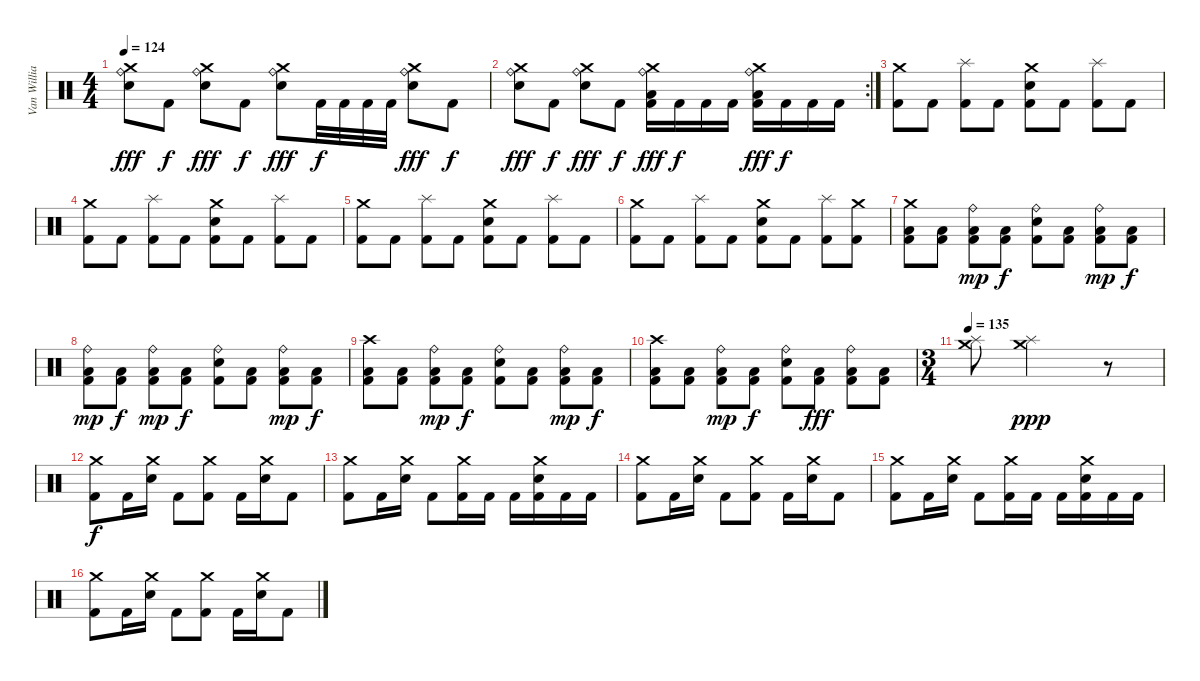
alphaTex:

\track ("Van Williams" "Van Willia") {instrument percussion}
\staff {score}
\articulation defaults
\ts (4 4)
\tempo 124
\clef neutral
\ks c
("Crash medium (hit)" "Ride (bell)" "Electric Snare (hit)").8{dy fff} "Kick (hit) 2".8{dy f} ("Crash medium (hit)" "Ride (bell)" "Electric Snare (hit)").8{dy fff} "Kick (hit) 2".8{dy f} ("Crash medium (hit)" "Ride (bell)" "Electric Snare (hit)").8{dy fff} "Kick (hit) 2".32{dy f} "Kick (hit) 2".32 "Kick (hit) 2".32 "Kick (hit) 2".32 ("Crash medium (hit)" "Ride (bell)" "Electric Snare (hit)").8{dy fff} "Kick (hit) 2".8{dy f} |
\rc 2
("Crash medium (hit)" "Ride (bell)" "Electric Snare (hit)").8{dy fff} "Kick (hit) 2".8{dy f} ("Crash medium (hit)" "Ride (bell)" "Electric Snare (hit)").8{dy fff} "Kick (hit) 2".8{dy f} ("Crash medium (hit)" "Ride (bell)" "Low Floor Tom (hit)" "Kick (hit) 2").16{dy fff} "Kick (hit) 2".16{dy f} "Kick (hit) 2".16 "Kick (hit) 2".16 ("Crash medium (hit)" "Ride (bell)" "Low Floor Tom (hit)" "Kick (hit) 2").16{dy fff} "Kick (hit) 2".16{dy f} "Kick (hit) 2".16 "Kick (hit) 2".16 |
("Crash medium (hit)" "Kick (hit) 2").8 "Kick (hit) 2".8 ("Splash (hit)" "Kick (hit) 2").8 "Kick (hit) 2".8 ("Crash medium (hit)" "Electric Snare (hit)" "Kick (hit) 2").8 "Kick (hit) 2".8 ("Splash (hit)" "Kick (hit) 2").8 "Kick (hit) 2".8 |
("Crash medium (hit)" "Kick (hit) 2").8 "Kick (hit) 2".8 ("Splash (hit)" "Kick (hit) 2").8 "Kick (hit) 2".8 ("Crash medium (hit)" "Electric Snare (hit)" "Kick (hit) 2").8 "Kick (hit) 2".8 ("Splash (hit)" "Kick (hit) 2").8 "Kick (hit) 2".8 |
("Crash medium (hit)" "Kick (hit) 2").8 "Kick (hit) 2".8 ("Splash (hit)" "Kick (hit) 2").8 "Kick (hit) 2".8 ("Crash medium (hit)" "Electric Snare (hit)" "Kick (hit) 2").8 "Kick (hit) 2".8 ("Splash (hit)" "Kick (hit) 2").8 "Kick (hit) 2".8 |
("Crash medium (hit)" "Kick (hit) 2").8 "Kick (hit) 2".8 ("Splash (hit)" "Kick (hit) 2").8 "Kick (hit) 2".8 ("Crash medium (hit)" "Electric Snare (hit)" "Kick (hit) 2").8 "Kick (hit) 2".8 ("Splash (hit)" "Kick (hit) 2").8 ("Crash medium (hit)" "Kick (hit) 2").8 |
("Crash medium (hit)" "Low Floor Tom (hit)" "Kick (hit) 2").8 ("Low Floor Tom (hit)" "Kick (hit) 2").8 ("Ride (bell)" "Low Floor Tom (hit)" "Kick (hit) 2").8{dy mp} ("Low Floor Tom (hit)" "Kick (hit) 2").8{dy f} ("Ride (bell)" "Electric Snare (hit)" "Kick (hit) 2").8 ("Low Floor Tom (hit)" "Kick (hit) 2").8 ("Ride (bell)" "Low Floor Tom (hit)" "Kick (hit) 2").8{dy mp} ("Low Floor Tom (hit)" "Kick (hit) 2").8{dy f} |
("Ride (bell)" "Low Floor Tom (hit)" "Kick (hit) 2").8{dy mp} ("Low Floor Tom (hit)" "Kick (hit) 2").8{dy f} ("Ride (bell)" "Low Floor Tom (hit)" "Kick (hit) 2").8{dy mp} ("Low Floor Tom (hit)" "Kick (hit) 2").8{dy f} ("Ride (bell)" "Electric Snare (hit)" "Kick (hit) 2").8 ("Low Floor Tom (hit)" "Kick (hit) 2").8 ("Ride (bell)" "Low Floor Tom (hit)" "Kick (hit) 2").8{dy mp} ("Low Floor Tom (hit)" "Kick (hit) 2").8{dy f} |
("Crash high (hit)" "Low Floor Tom (hit)" "Kick (hit) 2").8 ("Low Floor Tom (hit)" "Kick (hit) 2").8 ("Ride (bell)" "Low Floor Tom (hit)" "Kick (hit) 2").8{dy mp} ("Low Floor Tom (hit)" "Kick (hit) 2").8{dy f} ("Ride (bell)" "Electric Snare (hit)" "Kick (hit) 2").8 ("Low Floor Tom (hit)" "Kick (hit) 2").8 ("Ride (bell)" "Low Floor Tom (hit)" "Kick (hit) 2").8{dy mp} ("Low Floor Tom (hit)" "Kick (hit) 2").8{dy f} |
("Crash high (hit)" "Low Floor Tom (hit)" "Kick (hit) 2").8 ("Low Floor Tom (hit)" "Kick (hit) 2").8 ("Ride (bell)" "Low Floor Tom (hit)" "Kick (hit) 2").8{dy mp} ("Low Floor Tom (hit)" "Kick (hit) 2").8{dy f} ("Ride (bell)" "Electric Snare (hit)" "Kick (hit) 2").8 ("Low Floor Tom (hit)" "Kick (hit) 2").8{dy fff} ("Ride (bell)" "Low Floor Tom (hit)" "Kick (hit) 2").8 ("Low Floor Tom (hit)" "Kick (hit) 2").8 |
\ts (3 4)
\tempo 135
("Crash medium (hit)" "Splash (hit)").8 ("Crash medium (hit)" "Splash (hit)").2{dy ppp} r.8 |
("Crash medium (hit)" "Kick (hit) 2").8{dy f} "Kick (hit) 2".16 ("Crash medium (hit)" "Electric Snare (hit)").16 "Kick (hit) 2".8 ("Crash medium (hit)" "Kick (hit) 2").8 "Kick (hit) 2".16 ("Crash medium (hit)" "Electric Snare (hit)").16 "Kick (hit) 2".8 |
("Crash medium (hit)" "Kick (hit) 2").8 "Kick (hit) 2".16 ("Crash medium (hit)" "Electric Snare (hit)").16 "Kick (hit) 2".8 ("Crash medium (hit)" "Kick (hit) 2").16 "Kick (hit) 2".16 "Kick (hit) 2".16 ("Crash medium (hit)" "Electric Snare (hit)" "Kick (hit) 2").16 "Kick (hit) 2".16 "Kick (hit) 2".16 |
("Crash medium (hit)" "Kick (hit) 2").8 "Kick (hit) 2".16 ("Crash medium (hit)" "Electric Snare (hit)").16 "Kick (hit) 2".8 ("Crash medium (hit)" "Kick (hit) 2").8 "Kick (hit) 2".16 ("Crash medium (hit)" "Electric Snare (hit)").16 "Kick (hit) 2".8 |
("Crash medium (hit)" "Kick (hit) 2").8 "Kick (hit) 2".16 ("Crash medium (hit)" "Electric Snare (hit)").16 "Kick (hit) 2".8 ("Crash medium (hit)" "Kick (hit) 2").16 "Kick (hit) 2".16 "Kick (hit) 2".16 ("Crash medium (hit)" "Electric Snare (hit)" "Kick (hit) 2").16 "Kick (hit) 2".16 "Kick (hit) 2".16 |
("Crash medium (hit)" "Kick (hit) 2").8 "Kick (hit) 2".16 ("Crash medium (hit)" "Electric Snare (hit)").16 "Kick (hit) 2".8 ("Crash medium (hit)" "Kick (hit) 2").8 "Kick (hit) 2".16 ("Crash medium (hit)" "Electric Snare (hit)").16 "Kick (hit) 2".8
